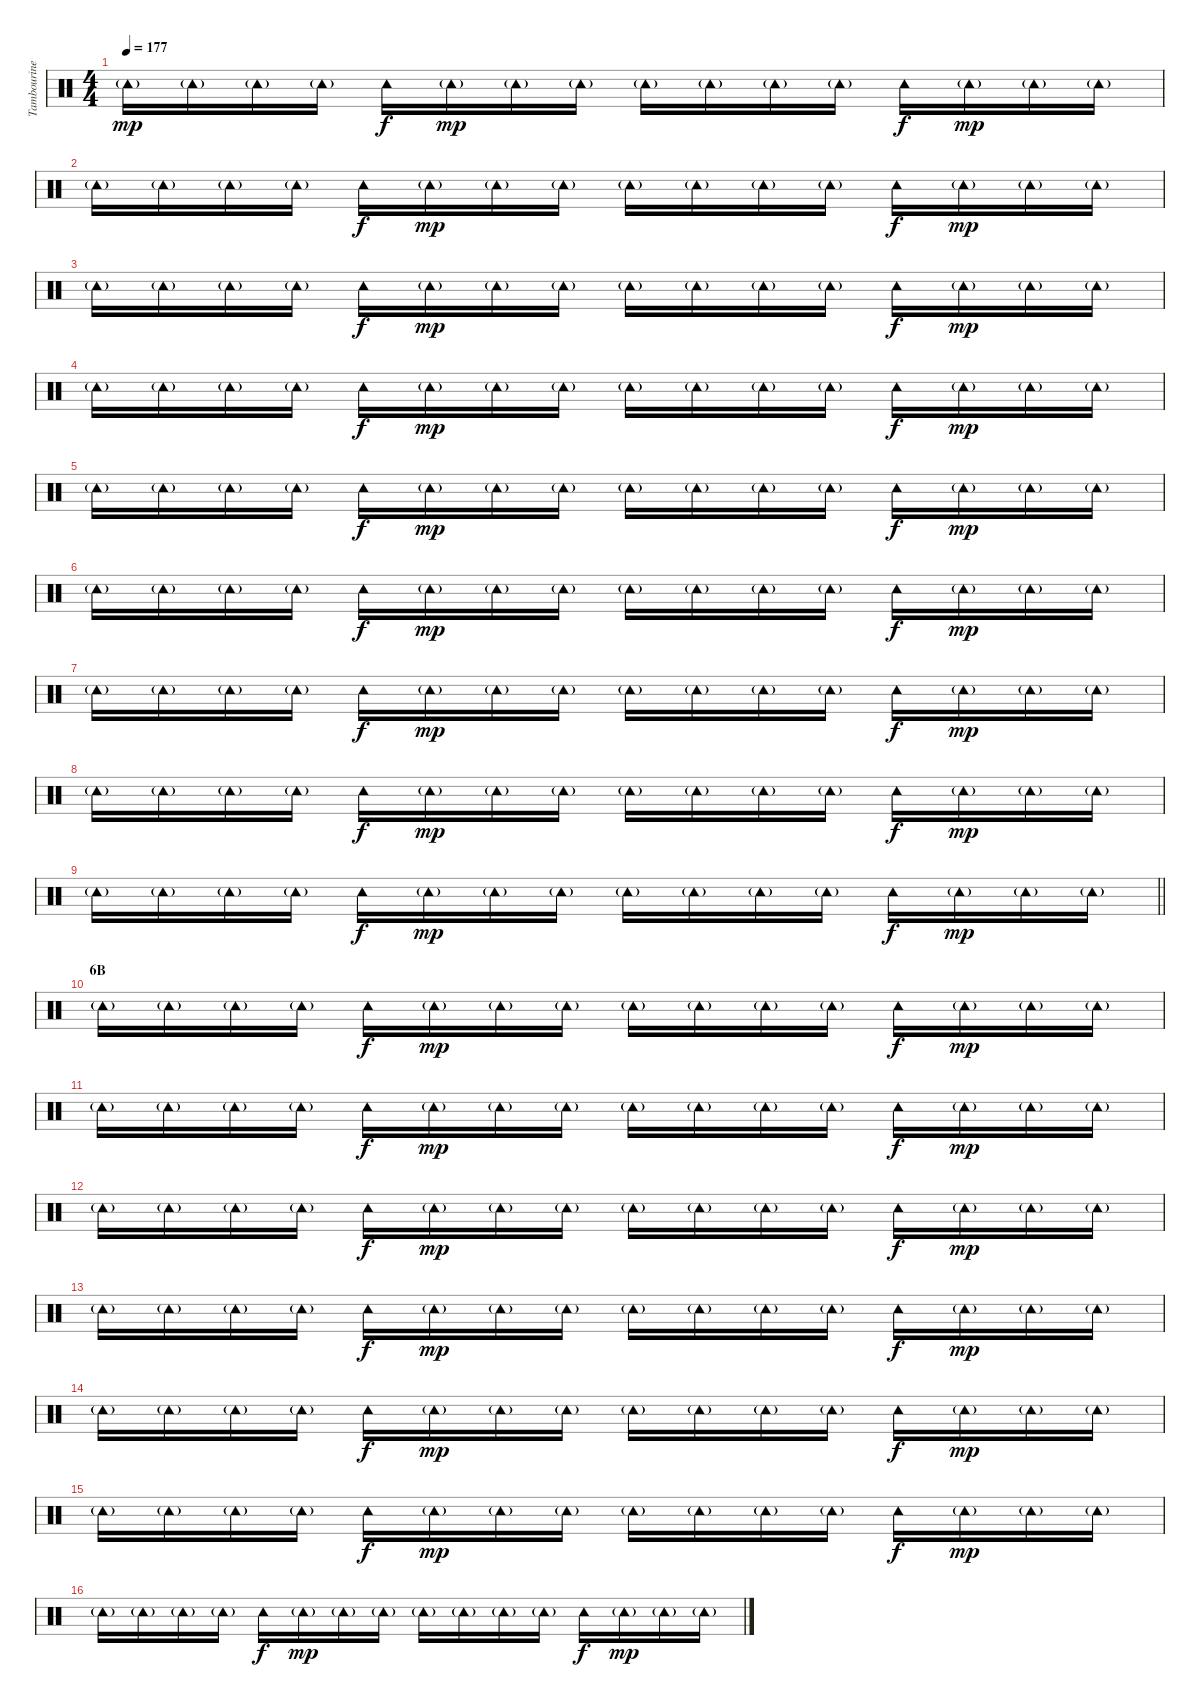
\track ("Tambourine" "Tambourine") {instrument percussion}
\staff {score}
\articulation defaults
\ts (4 4)
\tempo 177
\clef neutral
\ks c "Tambourine (hit)"{g}.16{dy mp} "Tambourine (hit)"{g}.16 "Tambourine (hit)"{g}.16 "Tambourine (hit)"{g}.16 "Tambourine (hit)".16{dy f} "Tambourine (hit)"{g}.16{dy mp} "Tambourine (hit)"{g}.16 "Tambourine (hit)"{g}.16 "Tambourine (hit)"{g}.16 "Tambourine (hit)"{g}.16 "Tambourine (hit)"{g}.16 "Tambourine (hit)"{g}.16 "Tambourine (hit)".16{dy f} "Tambourine (hit)"{g}.16{dy mp} "Tambourine (hit)"{g}.16 "Tambourine (hit)"{g}.16
|
"Tambourine (hit)"{g}.16 "Tambourine (hit)"{g}.16 "Tambourine (hit)"{g}.16 "Tambourine (hit)"{g}.16 "Tambourine (hit)".16{dy f} "Tambourine (hit)"{g}.16{dy mp} "Tambourine (hit)"{g}.16 "Tambourine (hit)"{g}.16 "Tambourine (hit)"{g}.16 "Tambourine (hit)"{g}.16 "Tambourine (hit)"{g}.16 "Tambourine (hit)"{g}.16 "Tambourine (hit)".16{dy f} "Tambourine (hit)"{g}.16{dy mp} "Tambourine (hit)"{g}.16 "Tambourine (hit)"{g}.16 |
"Tambourine (hit)"{g}.16 "Tambourine (hit)"{g}.16 "Tambourine (hit)"{g}.16 "Tambourine (hit)"{g}.16 "Tambourine (hit)".16{dy f} "Tambourine (hit)"{g}.16{dy mp} "Tambourine (hit)"{g}.16 "Tambourine (hit)"{g}.16 "Tambourine (hit)"{g}.16 "Tambourine (hit)"{g}.16 "Tambourine (hit)"{g}.16 "Tambourine (hit)"{g}.16 "Tambourine (hit)".16{dy f} "Tambourine (hit)"{g}.16{dy mp} "Tambourine (hit)"{g}.16 "Tambourine (hit)"{g}.16 |
"Tambourine (hit)"{g}.16 "Tambourine (hit)"{g}.16 "Tambourine (hit)"{g}.16 "Tambourine (hit)"{g}.16 "Tambourine (hit)".16{dy f} "Tambourine (hit)"{g}.16{dy mp} "Tambourine (hit)"{g}.16 "Tambourine (hit)"{g}.16 "Tambourine (hit)"{g}.16 "Tambourine (hit)"{g}.16 "Tambourine (hit)"{g}.16 "Tambourine (hit)"{g}.16 "Tambourine (hit)".16{dy f} "Tambourine (hit)"{g}.16{dy mp} "Tambourine (hit)"{g}.16 "Tambourine (hit)"{g}.16 |
"Tambourine (hit)"{g}.16 "Tambourine (hit)"{g}.16 "Tambourine (hit)"{g}.16 "Tambourine (hit)"{g}.16 "Tambourine (hit)".16{dy f} "Tambourine (hit)"{g}.16{dy mp} "Tambourine (hit)"{g}.16 "Tambourine (hit)"{g}.16 "Tambourine (hit)"{g}.16 "Tambourine (hit)"{g}.16 "Tambourine (hit)"{g}.16 "Tambourine (hit)"{g}.16 "Tambourine (hit)".16{dy f} "Tambourine (hit)"{g}.16{dy mp} "Tambourine (hit)"{g}.16 "Tambourine (hit)"{g}.16 |
"Tambourine (hit)"{g}.16 "Tambourine (hit)"{g}.16 "Tambourine (hit)"{g}.16 "Tambourine (hit)"{g}.16 "Tambourine (hit)".16{dy f} "Tambourine (hit)"{g}.16{dy mp} "Tambourine (hit)"{g}.16 "Tambourine (hit)"{g}.16 "Tambourine (hit)"{g}.16 "Tambourine (hit)"{g}.16 "Tambourine (hit)"{g}.16 "Tambourine (hit)"{g}.16 "Tambourine (hit)".16{dy f} "Tambourine (hit)"{g}.16{dy mp} "Tambourine (hit)"{g}.16 "Tambourine (hit)"{g}.16 |
"Tambourine (hit)"{g}.16 "Tambourine (hit)"{g}.16 "Tambourine (hit)"{g}.16 "Tambourine (hit)"{g}.16 "Tambourine (hit)".16{dy f} "Tambourine (hit)"{g}.16{dy mp} "Tambourine (hit)"{g}.16 "Tambourine (hit)"{g}.16 "Tambourine (hit)"{g}.16 "Tambourine (hit)"{g}.16 "Tambourine (hit)"{g}.16 "Tambourine (hit)"{g}.16 "Tambourine (hit)".16{dy f} "Tambourine (hit)"{g}.16{dy mp} "Tambourine (hit)"{g}.16 "Tambourine (hit)"{g}.16 |
"Tambourine (hit)"{g}.16 "Tambourine (hit)"{g}.16 "Tambourine (hit)"{g}.16 "Tambourine (hit)"{g}.16 "Tambourine (hit)".16{dy f} "Tambourine (hit)"{g}.16{dy mp} "Tambourine (hit)"{g}.16 "Tambourine (hit)"{g}.16 "Tambourine (hit)"{g}.16 "Tambourine (hit)"{g}.16 "Tambourine (hit)"{g}.16 "Tambourine (hit)"{g}.16 "Tambourine (hit)".16{dy f} "Tambourine (hit)"{g}.16{dy mp} "Tambourine (hit)"{g}.16 "Tambourine (hit)"{g}.16 |
\barLineRight lightlight "Tambourine (hit)"{g}.16 "Tambourine (hit)"{g}.16 "Tambourine (hit)"{g}.16 "Tambourine (hit)"{g}.16 "Tambourine (hit)".16{dy f} "Tambourine (hit)"{g}.16{dy mp} "Tambourine (hit)"{g}.16 "Tambourine (hit)"{g}.16 "Tambourine (hit)"{g}.16 "Tambourine (hit)"{g}.16 "Tambourine (hit)"{g}.16 "Tambourine (hit)"{g}.16 "Tambourine (hit)".16{dy f} "Tambourine (hit)"{g}.16{dy mp} "Tambourine (hit)"{g}.16 "Tambourine (hit)"{g}.16
|
\section ("" "6B")
"Tambourine (hit)"{g}.16 "Tambourine (hit)"{g}.16 "Tambourine (hit)"{g}.16 "Tambourine (hit)"{g}.16 "Tambourine (hit)".16{dy f} "Tambourine (hit)"{g}.16{dy mp} "Tambourine (hit)"{g}.16 "Tambourine (hit)"{g}.16 "Tambourine (hit)"{g}.16 "Tambourine (hit)"{g}.16 "Tambourine (hit)"{g}.16 "Tambourine (hit)"{g}.16 "Tambourine (hit)".16{dy f} "Tambourine (hit)"{g}.16{dy mp} "Tambourine (hit)"{g}.16 "Tambourine (hit)"{g}.16 |
"Tambourine (hit)"{g}.16 "Tambourine (hit)"{g}.16 "Tambourine (hit)"{g}.16 "Tambourine (hit)"{g}.16 "Tambourine (hit)".16{dy f} "Tambourine (hit)"{g}.16{dy mp} "Tambourine (hit)"{g}.16 "Tambourine (hit)"{g}.16 "Tambourine (hit)"{g}.16 "Tambourine (hit)"{g}.16 "Tambourine (hit)"{g}.16 "Tambourine (hit)"{g}.16 "Tambourine (hit)".16{dy f} "Tambourine (hit)"{g}.16{dy mp} "Tambourine (hit)"{g}.16 "Tambourine (hit)"{g}.16 |
"Tambourine (hit)"{g}.16 "Tambourine (hit)"{g}.16 "Tambourine (hit)"{g}.16 "Tambourine (hit)"{g}.16 "Tambourine (hit)".16{dy f} "Tambourine (hit)"{g}.16{dy mp} "Tambourine (hit)"{g}.16 "Tambourine (hit)"{g}.16 "Tambourine (hit)"{g}.16 "Tambourine (hit)"{g}.16 "Tambourine (hit)"{g}.16 "Tambourine (hit)"{g}.16 "Tambourine (hit)".16{dy f} "Tambourine (hit)"{g}.16{dy mp} "Tambourine (hit)"{g}.16 "Tambourine (hit)"{g}.16 |
"Tambourine (hit)"{g}.16 "Tambourine (hit)"{g}.16 "Tambourine (hit)"{g}.16 "Tambourine (hit)"{g}.16 "Tambourine (hit)".16{dy f} "Tambourine (hit)"{g}.16{dy mp} "Tambourine (hit)"{g}.16 "Tambourine (hit)"{g}.16 "Tambourine (hit)"{g}.16 "Tambourine (hit)"{g}.16 "Tambourine (hit)"{g}.16 "Tambourine (hit)"{g}.16 "Tambourine (hit)".16{dy f} "Tambourine (hit)"{g}.16{dy mp} "Tambourine (hit)"{g}.16 "Tambourine (hit)"{g}.16 |
"Tambourine (hit)"{g}.16 "Tambourine (hit)"{g}.16 "Tambourine (hit)"{g}.16 "Tambourine (hit)"{g}.16 "Tambourine (hit)".16{dy f} "Tambourine (hit)"{g}.16{dy mp} "Tambourine (hit)"{g}.16 "Tambourine (hit)"{g}.16 "Tambourine (hit)"{g}.16 "Tambourine (hit)"{g}.16 "Tambourine (hit)"{g}.16 "Tambourine (hit)"{g}.16 "Tambourine (hit)".16{dy f} "Tambourine (hit)"{g}.16{dy mp} "Tambourine (hit)"{g}.16 "Tambourine (hit)"{g}.16 |
"Tambourine (hit)"{g}.16 "Tambourine (hit)"{g}.16 "Tambourine (hit)"{g}.16 "Tambourine (hit)"{g}.16 "Tambourine (hit)".16{dy f} "Tambourine (hit)"{g}.16{dy mp} "Tambourine (hit)"{g}.16 "Tambourine (hit)"{g}.16 "Tambourine (hit)"{g}.16 "Tambourine (hit)"{g}.16 "Tambourine (hit)"{g}.16 "Tambourine (hit)"{g}.16 "Tambourine (hit)".16{dy f} "Tambourine (hit)"{g}.16{dy mp} "Tambourine (hit)"{g}.16 "Tambourine (hit)"{g}.16 |
"Tambourine (hit)"{g}.16 "Tambourine (hit)"{g}.16 "Tambourine (hit)"{g}.16 "Tambourine (hit)"{g}.16 "Tambourine (hit)".16{dy f} "Tambourine (hit)"{g}.16{dy mp} "Tambourine (hit)"{g}.16 "Tambourine (hit)"{g}.16 "Tambourine (hit)"{g}.16 "Tambourine (hit)"{g}.16 "Tambourine (hit)"{g}.16 "Tambourine (hit)"{g}.16 "Tambourine (hit)".16{dy f} "Tambourine (hit)"{g}.16{dy mp} "Tambourine (hit)"{g}.16 "Tambourine (hit)"{g}.16
